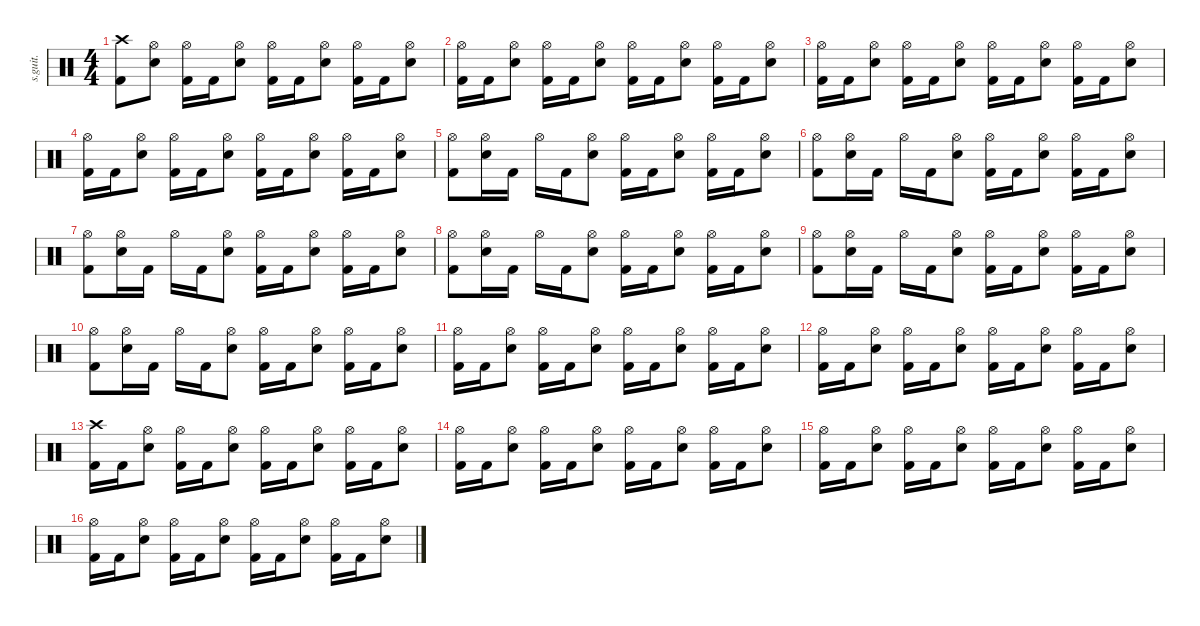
\defaultSystemsLayout 4
\hideDynamics
\bracketExtendMode nobrackets
\track ("" "s.guit.") {instrument percussion}
\staff {score}
\articulation defaults
\ts (4 4)
\tempo (160 hide)
\clef neutral
\ks c
("Crash high (hit)" "Kick (hit) 2").8{dy f} ("Hi-Hat (open)" "Snare (hit) 2").8 ("Hi-Hat (open)" "Kick (hit) 2").16 "Kick (hit) 2".16 ("Hi-Hat (open)" "Snare (hit) 2").8 ("Hi-Hat (open)" "Kick (hit) 2").16 "Kick (hit) 2".16 ("Hi-Hat (open)" "Snare (hit) 2").8 ("Hi-Hat (open)" "Kick (hit) 2").16 "Kick (hit) 2".16 ("Hi-Hat (open)" "Snare (hit) 2").8 |
("Hi-Hat (open)" "Kick (hit) 2").16 "Kick (hit) 2".16 ("Hi-Hat (open)" "Snare (hit) 2").8 ("Hi-Hat (open)" "Kick (hit) 2").16 "Kick (hit) 2".16 ("Hi-Hat (open)" "Snare (hit) 2").8 ("Hi-Hat (open)" "Kick (hit) 2").16 "Kick (hit) 2".16 ("Hi-Hat (open)" "Snare (hit) 2").8 ("Hi-Hat (open)" "Kick (hit) 2").16 "Kick (hit) 2".16 ("Hi-Hat (open)" "Snare (hit) 2").8 |
("Hi-Hat (open)" "Kick (hit) 2").16 "Kick (hit) 2".16 ("Hi-Hat (open)" "Snare (hit) 2").8 ("Hi-Hat (open)" "Kick (hit) 2").16 "Kick (hit) 2".16 ("Hi-Hat (open)" "Snare (hit) 2").8 ("Hi-Hat (open)" "Kick (hit) 2").16 "Kick (hit) 2".16 ("Hi-Hat (open)" "Snare (hit) 2").8 ("Hi-Hat (open)" "Kick (hit) 2").16 "Kick (hit) 2".16 ("Hi-Hat (open)" "Snare (hit) 2").8 |
("Hi-Hat (open)" "Kick (hit) 2").16 "Kick (hit) 2".16 ("Hi-Hat (open)" "Snare (hit) 2").8 ("Hi-Hat (open)" "Kick (hit) 2").16 "Kick (hit) 2".16 ("Hi-Hat (open)" "Snare (hit) 2").8 ("Hi-Hat (open)" "Kick (hit) 2").16 "Kick (hit) 2".16 ("Hi-Hat (open)" "Snare (hit) 2").8 ("Hi-Hat (open)" "Kick (hit) 2").16 "Kick (hit) 2".16 ("Hi-Hat (open)" "Snare (hit) 2").8 |
("Hi-Hat (open)" "Kick (hit) 2").8 ("Hi-Hat (open)" "Snare (hit) 2").16 "Kick (hit) 2".16 "Hi-Hat (open)".16 "Kick (hit) 2".16 ("Hi-Hat (open)" "Snare (hit) 2").8 ("Hi-Hat (open)" "Kick (hit) 2").16 "Kick (hit) 2".16 ("Hi-Hat (open)" "Snare (hit) 2").8 ("Hi-Hat (open)" "Kick (hit) 2").16 "Kick (hit) 2".16 ("Hi-Hat (open)" "Snare (hit) 2").8 |
("Hi-Hat (open)" "Kick (hit) 2").8 ("Hi-Hat (open)" "Snare (hit) 2").16 "Kick (hit) 2".16 "Hi-Hat (open)".16 "Kick (hit) 2".16 ("Hi-Hat (open)" "Snare (hit) 2").8 ("Hi-Hat (open)" "Kick (hit) 2").16 "Kick (hit) 2".16 ("Hi-Hat (open)" "Snare (hit) 2").8 ("Hi-Hat (open)" "Kick (hit) 2").16 "Kick (hit) 2".16 ("Hi-Hat (open)" "Snare (hit) 2").8 |
("Hi-Hat (open)" "Kick (hit) 2").8 ("Hi-Hat (open)" "Snare (hit) 2").16 "Kick (hit) 2".16 "Hi-Hat (open)".16 "Kick (hit) 2".16 ("Hi-Hat (open)" "Snare (hit) 2").8 ("Hi-Hat (open)" "Kick (hit) 2").16 "Kick (hit) 2".16 ("Hi-Hat (open)" "Snare (hit) 2").8 ("Hi-Hat (open)" "Kick (hit) 2").16 "Kick (hit) 2".16 ("Hi-Hat (open)" "Snare (hit) 2").8 |
("Hi-Hat (open)" "Kick (hit) 2").8 ("Hi-Hat (open)" "Snare (hit) 2").16 "Kick (hit) 2".16 "Hi-Hat (open)".16 "Kick (hit) 2".16 ("Hi-Hat (open)" "Snare (hit) 2").8 ("Hi-Hat (open)" "Kick (hit) 2").16 "Kick (hit) 2".16 ("Hi-Hat (open)" "Snare (hit) 2").8 ("Hi-Hat (open)" "Kick (hit) 2").16 "Kick (hit) 2".16 ("Hi-Hat (open)" "Snare (hit) 2").8 |
("Hi-Hat (open)" "Kick (hit) 2").8 ("Hi-Hat (open)" "Snare (hit) 2").16 "Kick (hit) 2".16 "Hi-Hat (open)".16 "Kick (hit) 2".16 ("Hi-Hat (open)" "Snare (hit) 2").8 ("Hi-Hat (open)" "Kick (hit) 2").16 "Kick (hit) 2".16 ("Hi-Hat (open)" "Snare (hit) 2").8 ("Hi-Hat (open)" "Kick (hit) 2").16 "Kick (hit) 2".16 ("Hi-Hat (open)" "Snare (hit) 2").8 |
("Hi-Hat (open)" "Kick (hit) 2").8 ("Hi-Hat (open)" "Snare (hit) 2").16 "Kick (hit) 2".16 "Hi-Hat (open)".16 "Kick (hit) 2".16 ("Hi-Hat (open)" "Snare (hit) 2").8 ("Hi-Hat (open)" "Kick (hit) 2").16 "Kick (hit) 2".16 ("Hi-Hat (open)" "Snare (hit) 2").8 ("Hi-Hat (open)" "Kick (hit) 2").16 "Kick (hit) 2".16 ("Hi-Hat (open)" "Snare (hit) 2").8 |
("Hi-Hat (open)" "Kick (hit) 2").16 "Kick (hit) 2".16 ("Hi-Hat (open)" "Snare (hit) 2").8 ("Hi-Hat (open)" "Kick (hit) 2").16 "Kick (hit) 2".16 ("Hi-Hat (open)" "Snare (hit) 2").8 ("Hi-Hat (open)" "Kick (hit) 2").16 "Kick (hit) 2".16 ("Hi-Hat (open)" "Snare (hit) 2").8 ("Hi-Hat (open)" "Kick (hit) 2").16 "Kick (hit) 2".16 ("Hi-Hat (open)" "Snare (hit) 2").8 |
("Hi-Hat (open)" "Kick (hit) 2").16 "Kick (hit) 2".16 ("Hi-Hat (open)" "Snare (hit) 2").8 ("Hi-Hat (open)" "Kick (hit) 2").16 "Kick (hit) 2".16 ("Hi-Hat (open)" "Snare (hit) 2").8 ("Hi-Hat (open)" "Kick (hit) 2").16 "Kick (hit) 2".16 ("Hi-Hat (open)" "Snare (hit) 2").8 ("Hi-Hat (open)" "Kick (hit) 2").16 "Kick (hit) 2".16 ("Hi-Hat (open)" "Snare (hit) 2").8 |
("Crash high (hit)" "Kick (hit) 2").16 "Kick (hit) 2".16 ("Hi-Hat (open)" "Snare (hit) 2").8 ("Hi-Hat (open)" "Kick (hit) 2").16 "Kick (hit) 2".16 ("Hi-Hat (open)" "Snare (hit) 2").8 ("Hi-Hat (open)" "Kick (hit) 2").16 "Kick (hit) 2".16 ("Hi-Hat (open)" "Snare (hit) 2").8 ("Hi-Hat (open)" "Kick (hit) 2").16 "Kick (hit) 2".16 ("Hi-Hat (open)" "Snare (hit) 2").8 |
("Hi-Hat (open)" "Kick (hit) 2").16 "Kick (hit) 2".16 ("Hi-Hat (open)" "Snare (hit) 2").8 ("Hi-Hat (open)" "Kick (hit) 2").16 "Kick (hit) 2".16 ("Hi-Hat (open)" "Snare (hit) 2").8 ("Hi-Hat (open)" "Kick (hit) 2").16 "Kick (hit) 2".16 ("Hi-Hat (open)" "Snare (hit) 2").8 ("Hi-Hat (open)" "Kick (hit) 2").16 "Kick (hit) 2".16 ("Hi-Hat (open)" "Snare (hit) 2").8 |
("Hi-Hat (open)" "Kick (hit) 2").16 "Kick (hit) 2".16 ("Hi-Hat (open)" "Snare (hit) 2").8 ("Hi-Hat (open)" "Kick (hit) 2").16 "Kick (hit) 2".16 ("Hi-Hat (open)" "Snare (hit) 2").8 ("Hi-Hat (open)" "Kick (hit) 2").16 "Kick (hit) 2".16 ("Hi-Hat (open)" "Snare (hit) 2").8 ("Hi-Hat (open)" "Kick (hit) 2").16 "Kick (hit) 2".16 ("Hi-Hat (open)" "Snare (hit) 2").8 |
("Hi-Hat (open)" "Kick (hit) 2").16 "Kick (hit) 2".16 ("Hi-Hat (open)" "Snare (hit) 2").8 ("Hi-Hat (open)" "Kick (hit) 2").16 "Kick (hit) 2".16 ("Hi-Hat (open)" "Snare (hit) 2").8 ("Hi-Hat (open)" "Kick (hit) 2").16 "Kick (hit) 2".16 ("Hi-Hat (open)" "Snare (hit) 2").8 ("Hi-Hat (open)" "Kick (hit) 2").16 "Kick (hit) 2".16 ("Hi-Hat (open)" "Snare (hit) 2").8
